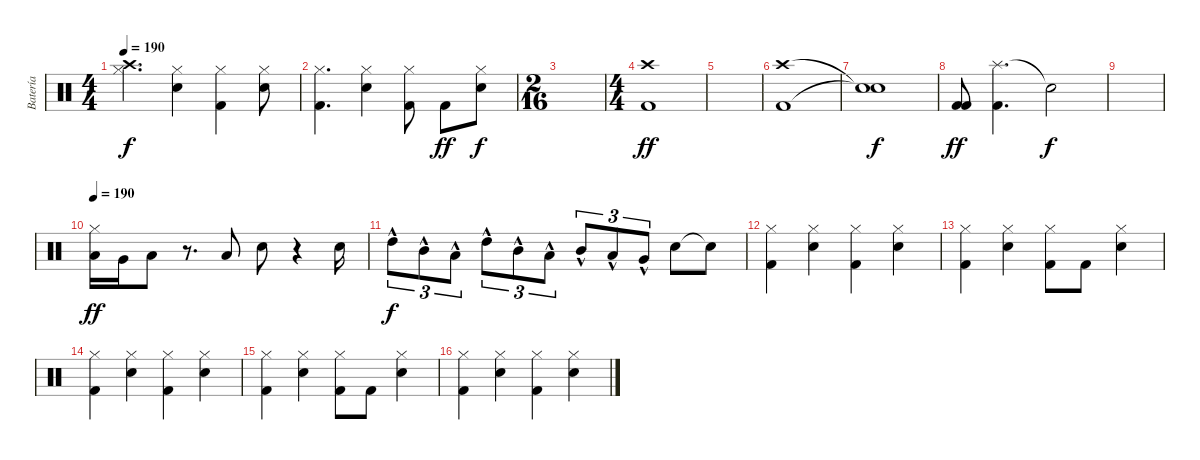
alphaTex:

\track ("Batería" "Batería") {instrument percussion}
\staff {score}
\articulation defaults
\ts (4 4)
\tempo 190
\clef neutral
\ks c
("Crash high (hit)" "Hi-Hat (closed)").4{d dy f} ("Electric Snare (hit)" "Hi-Hat (closed)").4 ("Kick (hit) 2" "Hi-Hat (closed)").4 ("Electric Snare (hit)" "Hi-Hat (closed)").8 |
("Kick (hit) 2" "Hi-Hat (closed)").4{d} ("Electric Snare (hit)" "Hi-Hat (closed)").4 ("Kick (hit) 2" "Hi-Hat (closed)").8 "Kick (hit) 2".8{dy ff} ("Electric Snare (hit)" "Hi-Hat (closed)").8{dy f} |
\ts (2 16)
|
\ts (4 4)
("Crash high (hit)" "Kick (hit) 2").1{dy ff} |
|
("Crash high (hit)" "Kick (hit) 2").1 |
("Snare (hit)"{t} "Snare (hit)"{t}).1{dy f} |
("Kick (hit) 2" "Kick (hit) 2").8{dy ff} ("Splash (hit)" "Kick (hit) 2").4{d} "Snare (hit)"{t}.2{dy f} |
|
\tempo 190
("Low Tom (hit)" "Hi-Hat (closed)").16{dy ff} "Very Low Tom (hit)".16 "Low Floor Tom (hit)".8 r.8{d} "Low Floor Tom (hit)".8 "Electric Snare (hit)".8 r.4 "Electric Snare (hit)".16 |
"High Tom (hit)"{hac}.8{tu (3 2) dy f} "Mid Tom (hit)"{hac}.8{tu (3 2)} "Low Tom (hit)"{hac}.8{tu (3 2)} "High Tom (hit)"{hac}.8{tu (3 2)} "Mid Tom (hit)"{hac}.8{tu (3 2)} "Low Tom (hit)"{hac}.8{tu (3 2)} "Mid Tom (hit)"{hac}.8{tu (3 2)} "Low Tom (hit)"{hac}.8{tu (3 2)} "Very Low Tom (hit)"{hac}.8{tu (3 2)} "Electric Snare (hit)".8 "Snare (hit)"{t}.8 |
("Kick (hit) 2" "Hi-Hat (closed)").4 ("Electric Snare (hit)" "Hi-Hat (closed)").4 ("Kick (hit) 2" "Hi-Hat (closed)").4 ("Electric Snare (hit)" "Hi-Hat (closed)").4 |
("Kick (hit) 2" "Hi-Hat (closed)").4 ("Electric Snare (hit)" "Hi-Hat (closed)").4 ("Kick (hit) 2" "Hi-Hat (closed)").8 "Kick (hit) 2".8 ("Electric Snare (hit)" "Hi-Hat (closed)").4 |
("Kick (hit) 2" "Hi-Hat (closed)").4 ("Electric Snare (hit)" "Hi-Hat (closed)").4 ("Kick (hit) 2" "Hi-Hat (closed)").4 ("Electric Snare (hit)" "Hi-Hat (closed)").4 |
("Kick (hit) 2" "Hi-Hat (closed)").4 ("Electric Snare (hit)" "Hi-Hat (closed)").4 ("Kick (hit) 2" "Hi-Hat (closed)").8 "Kick (hit) 2".8 ("Electric Snare (hit)" "Hi-Hat (closed)").4 |
("Kick (hit) 2" "Hi-Hat (closed)").4 ("Electric Snare (hit)" "Hi-Hat (closed)").4 ("Kick (hit) 2" "Hi-Hat (closed)").4 ("Electric Snare (hit)" "Hi-Hat (closed)").4
